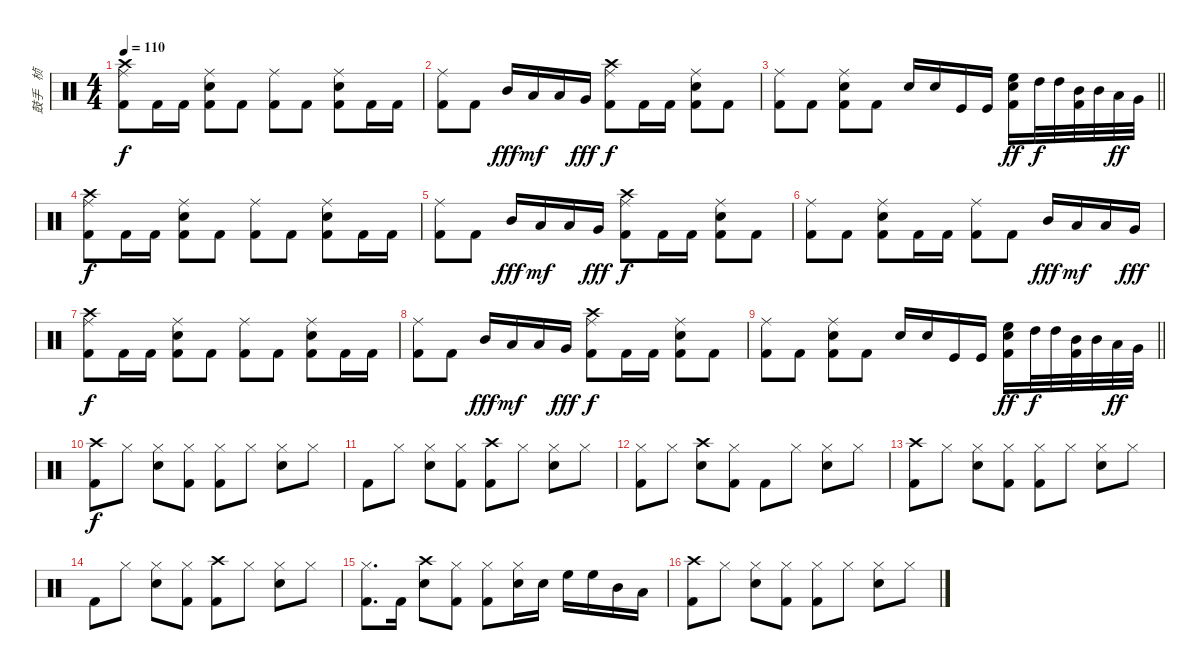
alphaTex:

\track ("鼓手   桢" "鼓手   桢") {instrument percussion bank 1}
\staff {score}
\articulation defaults
\ts (4 4)
\tempo 110
\clef neutral
\ks c
("Ride (middle)" "Kick (hit) 2" "Crash high (hit)").8{dy f} "Kick (hit) 2".16 "Kick (hit) 2".16 ("Ride (middle)" "Snare (hit) 2" "Kick (hit) 2").8 "Kick (hit) 2".8 ("Ride (middle)" "Kick (hit) 2").8 "Kick (hit) 2".8 ("Ride (middle)" "Snare (hit) 2" "Kick (hit) 2").8 "Kick (hit) 2".16 "Kick (hit) 2".16 |
("Ride (middle)" "Kick (hit) 2").8 "Kick (hit) 2".8 "Mid Tom (hit)".16{dy fff} "Low Tom (hit)".16{dy mf} "Low Tom (hit)".16 "Very Low Tom (hit)".16{dy fff} ("Ride (middle)" "Kick (hit) 2" "Crash high (hit)").8{dy f} "Kick (hit) 2".16 "Kick (hit) 2".16 ("Ride (middle)" "Snare (hit) 2" "Kick (hit) 2").8 "Kick (hit) 2".8 |
\barLineRight lightlight
("Ride (middle)" "Kick (hit) 2").8 "Kick (hit) 2".8 ("Ride (middle)" "Snare (hit) 2" "Kick (hit) 2").8 "Kick (hit) 2".8 "Snare (hit) 2".16 "Snare (hit) 2".16 "Kick (hit)".16 "Kick (hit)".16 ("Electric Snare (hit)" "High Floor Tom (hit)" "Kick (hit) 2").16{dy ff} "High Tom (hit)".32{dy f} "High Tom (hit)".32 ("Mid Tom (hit)" "Kick (hit) 2").32 "Mid Tom (hit)".32 "Low Tom (hit)".32{dy ff} "Very Low Tom (hit)".32 |
("Ride (middle)" "Kick (hit) 2" "Crash high (hit)").8{dy f} "Kick (hit) 2".16 "Kick (hit) 2".16 ("Ride (middle)" "Snare (hit) 2" "Kick (hit) 2").8 "Kick (hit) 2".8 ("Ride (middle)" "Kick (hit) 2").8 "Kick (hit) 2".8 ("Ride (middle)" "Snare (hit) 2" "Kick (hit) 2").8 "Kick (hit) 2".16 "Kick (hit) 2".16 |
("Ride (middle)" "Kick (hit) 2").8 "Kick (hit) 2".8 "Mid Tom (hit)".16{dy fff} "Low Tom (hit)".16{dy mf} "Low Tom (hit)".16 "Very Low Tom (hit)".16{dy fff} ("Ride (middle)" "Kick (hit) 2" "Crash high (hit)").8{dy f} "Kick (hit) 2".16 "Kick (hit) 2".16 ("Ride (middle)" "Snare (hit) 2" "Kick (hit) 2").8 "Kick (hit) 2".8 |
("Ride (middle)" "Kick (hit) 2").8 "Kick (hit) 2".8 ("Ride (middle)" "Snare (hit) 2" "Kick (hit) 2").8 "Kick (hit) 2".16 "Kick (hit) 2".16 ("Ride (middle)" "Kick (hit) 2").8 "Kick (hit) 2".8 "Mid Tom (hit)".16{dy fff} "Low Tom (hit)".16{dy mf} "Low Tom (hit)".16 "Very Low Tom (hit)".16{dy fff} |
("Ride (middle)" "Kick (hit) 2" "Crash high (hit)").8{dy f} "Kick (hit) 2".16 "Kick (hit) 2".16 ("Ride (middle)" "Snare (hit) 2" "Kick (hit) 2").8 "Kick (hit) 2".8 ("Ride (middle)" "Kick (hit) 2").8 "Kick (hit) 2".8 ("Ride (middle)" "Snare (hit) 2" "Kick (hit) 2").8 "Kick (hit) 2".16 "Kick (hit) 2".16 |
("Ride (middle)" "Kick (hit) 2").8 "Kick (hit) 2".8 "Mid Tom (hit)".16{dy fff} "Low Tom (hit)".16{dy mf} "Low Tom (hit)".16 "Very Low Tom (hit)".16{dy fff} ("Ride (middle)" "Kick (hit) 2" "Crash high (hit)").8{dy f} "Kick (hit) 2".16 "Kick (hit) 2".16 ("Ride (middle)" "Snare (hit) 2" "Kick (hit) 2").8 "Kick (hit) 2".8 |
\barLineRight lightlight
("Ride (middle)" "Kick (hit) 2").8 "Kick (hit) 2".8 ("Ride (middle)" "Snare (hit) 2" "Kick (hit) 2").8 "Kick (hit) 2".8 "Snare (hit) 2".16 "Snare (hit) 2".16 "Kick (hit)".16 "Kick (hit)".16 ("Electric Snare (hit)" "High Floor Tom (hit)" "Kick (hit) 2").16{dy ff} "High Tom (hit)".32{dy f} "High Tom (hit)".32 ("Mid Tom (hit)" "Kick (hit) 2").32 "Mid Tom (hit)".32 "Low Tom (hit)".32{dy ff} "Very Low Tom (hit)".32 |
("Crash high (hit)" "Kick (hit) 2").8{dy f} "Hi-Hat (closed)".8 ("Hi-Hat (closed)" "Snare (hit) 2").8 ("Hi-Hat (closed)" "Kick (hit) 2").8 ("Hi-Hat (closed)" "Kick (hit) 2").8 "Hi-Hat (closed)".8 ("Hi-Hat (closed)" "Snare (hit) 2").8 "Hi-Hat (closed)".8 |
"Kick (hit) 2".8 "Hi-Hat (closed)".8 ("Hi-Hat (closed)" "Snare (hit) 2").8 ("Hi-Hat (closed)" "Kick (hit) 2").8 ("Crash high (hit)" "Kick (hit) 2").8 "Hi-Hat (closed)".8 ("Hi-Hat (closed)" "Snare (hit) 2").8 "Hi-Hat (closed)".8 |
("Hi-Hat (closed)" "Kick (hit) 2").8 "Hi-Hat (closed)".8 ("Crash high (hit)" "Snare (hit) 2").8 ("Hi-Hat (closed)" "Kick (hit) 2").8 "Kick (hit) 2".8 "Hi-Hat (closed)".8 ("Hi-Hat (closed)" "Snare (hit) 2").8 "Hi-Hat (closed)".8 |
("Crash high (hit)" "Kick (hit) 2").8 "Hi-Hat (closed)".8 ("Hi-Hat (closed)" "Snare (hit) 2").8 ("Hi-Hat (closed)" "Kick (hit) 2").8 ("Hi-Hat (closed)" "Kick (hit) 2").8 "Hi-Hat (closed)".8 ("Hi-Hat (closed)" "Snare (hit) 2").8 "Hi-Hat (closed)".8 |
"Kick (hit) 2".8 "Hi-Hat (closed)".8 ("Hi-Hat (closed)" "Snare (hit) 2").8 ("Hi-Hat (closed)" "Kick (hit) 2").8 ("Crash high (hit)" "Kick (hit) 2").8 "Hi-Hat (closed)".8 ("Hi-Hat (closed)" "Snare (hit) 2").8 "Hi-Hat (closed)".8 |
("Hi-Hat (closed)" "Kick (hit) 2").8{d} "Kick (hit) 2".16 ("Crash high (hit)" "Snare (hit) 2").8 ("Hi-Hat (closed)" "Kick (hit) 2").8 ("Hi-Hat (closed)" "Kick (hit) 2").8 ("Hi-Hat (closed)" "Snare (hit) 2").16 "Snare (hit) 2".16 "High Floor Tom (hit)".16 "High Floor Tom (hit)".16 "Mid Tom (hit)".16 "Low Tom (hit)".16 |
("Crash high (hit)" "Kick (hit) 2").8 "Hi-Hat (closed)".8 ("Hi-Hat (closed)" "Snare (hit) 2").8 ("Hi-Hat (closed)" "Kick (hit) 2").8 ("Hi-Hat (closed)" "Kick (hit) 2").8 "Hi-Hat (closed)".8 ("Hi-Hat (closed)" "Snare (hit) 2").8 "Hi-Hat (closed)".8
